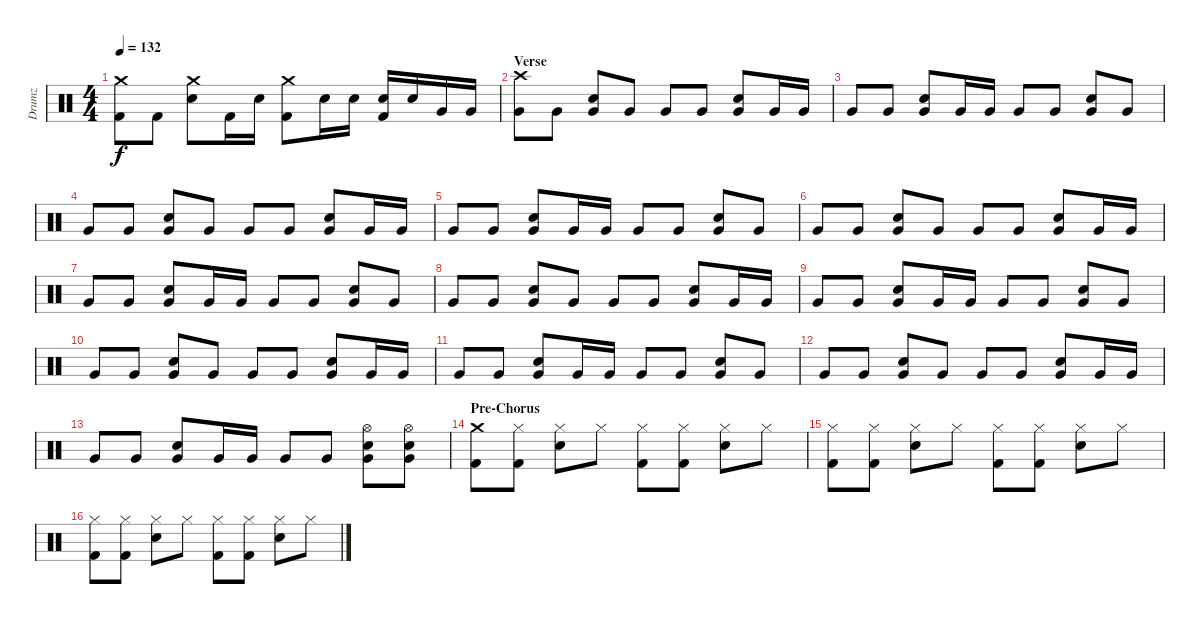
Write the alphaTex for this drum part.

\track ("Drumz" "Drumz") {instrument percussion}
\staff {score}
\articulation defaults
\ts (4 4)
\tempo 132
\clef neutral
\ks c
("Crash medium (hit)" "Kick (hit) 2").8{dy f} "Kick (hit) 2".8 ("Crash medium (hit)" "Snare (hit) 2").8 "Kick (hit) 2".16 "Snare (hit) 2".16 ("Crash medium (hit)" "Kick (hit) 2").8 "Snare (hit) 2".16 "Snare (hit) 2".16 ("Snare (hit) 2" "Kick (hit) 2").16 "Snare (hit) 2".16 "Very Low Tom (hit)".16 "Very Low Tom (hit)".16 |
\section ("" "Verse")
("Crash high (hit)" "Very Low Tom (hit)").8 "Very Low Tom (hit)".8 ("Snare (hit) 2" "Very Low Tom (hit)").8 "Very Low Tom (hit)".8 "Very Low Tom (hit)".8 "Very Low Tom (hit)".8 ("Snare (hit) 2" "Very Low Tom (hit)").8 "Very Low Tom (hit)".16 "Very Low Tom (hit)".16 |
"Very Low Tom (hit)".8 "Very Low Tom (hit)".8 ("Snare (hit) 2" "Very Low Tom (hit)").8 "Very Low Tom (hit)".16 "Very Low Tom (hit)".16 "Very Low Tom (hit)".8 "Very Low Tom (hit)".8 ("Snare (hit) 2" "Very Low Tom (hit)").8 "Very Low Tom (hit)".8 |
"Very Low Tom (hit)".8 "Very Low Tom (hit)".8 ("Snare (hit) 2" "Very Low Tom (hit)").8 "Very Low Tom (hit)".8 "Very Low Tom (hit)".8 "Very Low Tom (hit)".8 ("Snare (hit) 2" "Very Low Tom (hit)").8 "Very Low Tom (hit)".16 "Very Low Tom (hit)".16 |
"Very Low Tom (hit)".8 "Very Low Tom (hit)".8 ("Snare (hit) 2" "Very Low Tom (hit)").8 "Very Low Tom (hit)".16 "Very Low Tom (hit)".16 "Very Low Tom (hit)".8 "Very Low Tom (hit)".8 ("Snare (hit) 2" "Very Low Tom (hit)").8 "Very Low Tom (hit)".8 |
"Very Low Tom (hit)".8 "Very Low Tom (hit)".8 ("Snare (hit) 2" "Very Low Tom (hit)").8 "Very Low Tom (hit)".8 "Very Low Tom (hit)".8 "Very Low Tom (hit)".8 ("Snare (hit) 2" "Very Low Tom (hit)").8 "Very Low Tom (hit)".16 "Very Low Tom (hit)".16 |
"Very Low Tom (hit)".8 "Very Low Tom (hit)".8 ("Snare (hit) 2" "Very Low Tom (hit)").8 "Very Low Tom (hit)".16 "Very Low Tom (hit)".16 "Very Low Tom (hit)".8 "Very Low Tom (hit)".8 ("Snare (hit) 2" "Very Low Tom (hit)").8 "Very Low Tom (hit)".8 |
"Very Low Tom (hit)".8 "Very Low Tom (hit)".8 ("Snare (hit) 2" "Very Low Tom (hit)").8 "Very Low Tom (hit)".8 "Very Low Tom (hit)".8 "Very Low Tom (hit)".8 ("Snare (hit) 2" "Very Low Tom (hit)").8 "Very Low Tom (hit)".16 "Very Low Tom (hit)".16 |
"Very Low Tom (hit)".8 "Very Low Tom (hit)".8 ("Snare (hit) 2" "Very Low Tom (hit)").8 "Very Low Tom (hit)".16 "Very Low Tom (hit)".16 "Very Low Tom (hit)".8 "Very Low Tom (hit)".8 ("Snare (hit) 2" "Very Low Tom (hit)").8 "Very Low Tom (hit)".8 |
"Very Low Tom (hit)".8 "Very Low Tom (hit)".8 ("Snare (hit) 2" "Very Low Tom (hit)").8 "Very Low Tom (hit)".8 "Very Low Tom (hit)".8 "Very Low Tom (hit)".8 ("Snare (hit) 2" "Very Low Tom (hit)").8 "Very Low Tom (hit)".16 "Very Low Tom (hit)".16 |
"Very Low Tom (hit)".8 "Very Low Tom (hit)".8 ("Snare (hit) 2" "Very Low Tom (hit)").8 "Very Low Tom (hit)".16 "Very Low Tom (hit)".16 "Very Low Tom (hit)".8 "Very Low Tom (hit)".8 ("Snare (hit) 2" "Very Low Tom (hit)").8 "Very Low Tom (hit)".8 |
"Very Low Tom (hit)".8 "Very Low Tom (hit)".8 ("Snare (hit) 2" "Very Low Tom (hit)").8 "Very Low Tom (hit)".8 "Very Low Tom (hit)".8 "Very Low Tom (hit)".8 ("Snare (hit) 2" "Very Low Tom (hit)").8 "Very Low Tom (hit)".16 "Very Low Tom (hit)".16 |
"Very Low Tom (hit)".8 "Very Low Tom (hit)".8 ("Snare (hit) 2" "Very Low Tom (hit)").8 "Very Low Tom (hit)".16 "Very Low Tom (hit)".16 "Very Low Tom (hit)".8 "Very Low Tom (hit)".8 ("Hi-Hat (open)" "Snare (hit) 2" "Very Low Tom (hit)").8 ("Hi-Hat (open)" "Snare (hit) 2" "Very Low Tom (hit)").8 |
\section ("" "Pre-Chorus")
("Crash medium (hit)" "Kick (hit) 2").8 ("Hi-Hat (closed)" "Kick (hit) 2").8 ("Hi-Hat (closed)" "Snare (hit) 2").8 "Hi-Hat (closed)".8 ("Hi-Hat (closed)" "Kick (hit) 2").8 ("Hi-Hat (closed)" "Kick (hit) 2").8 ("Hi-Hat (closed)" "Snare (hit) 2").8 "Hi-Hat (closed)".8 |
("Hi-Hat (closed)" "Kick (hit) 2").8 ("Hi-Hat (closed)" "Kick (hit) 2").8 ("Hi-Hat (closed)" "Snare (hit) 2").8 "Hi-Hat (closed)".8 ("Hi-Hat (closed)" "Kick (hit) 2").8 ("Hi-Hat (closed)" "Kick (hit) 2").8 ("Hi-Hat (closed)" "Snare (hit) 2").8 "Hi-Hat (closed)".8 |
("Hi-Hat (closed)" "Kick (hit) 2").8 ("Hi-Hat (closed)" "Kick (hit) 2").8 ("Hi-Hat (closed)" "Snare (hit) 2").8 "Hi-Hat (closed)".8 ("Hi-Hat (closed)" "Kick (hit) 2").8 ("Hi-Hat (closed)" "Kick (hit) 2").8 ("Hi-Hat (closed)" "Snare (hit) 2").8 "Hi-Hat (closed)".8
